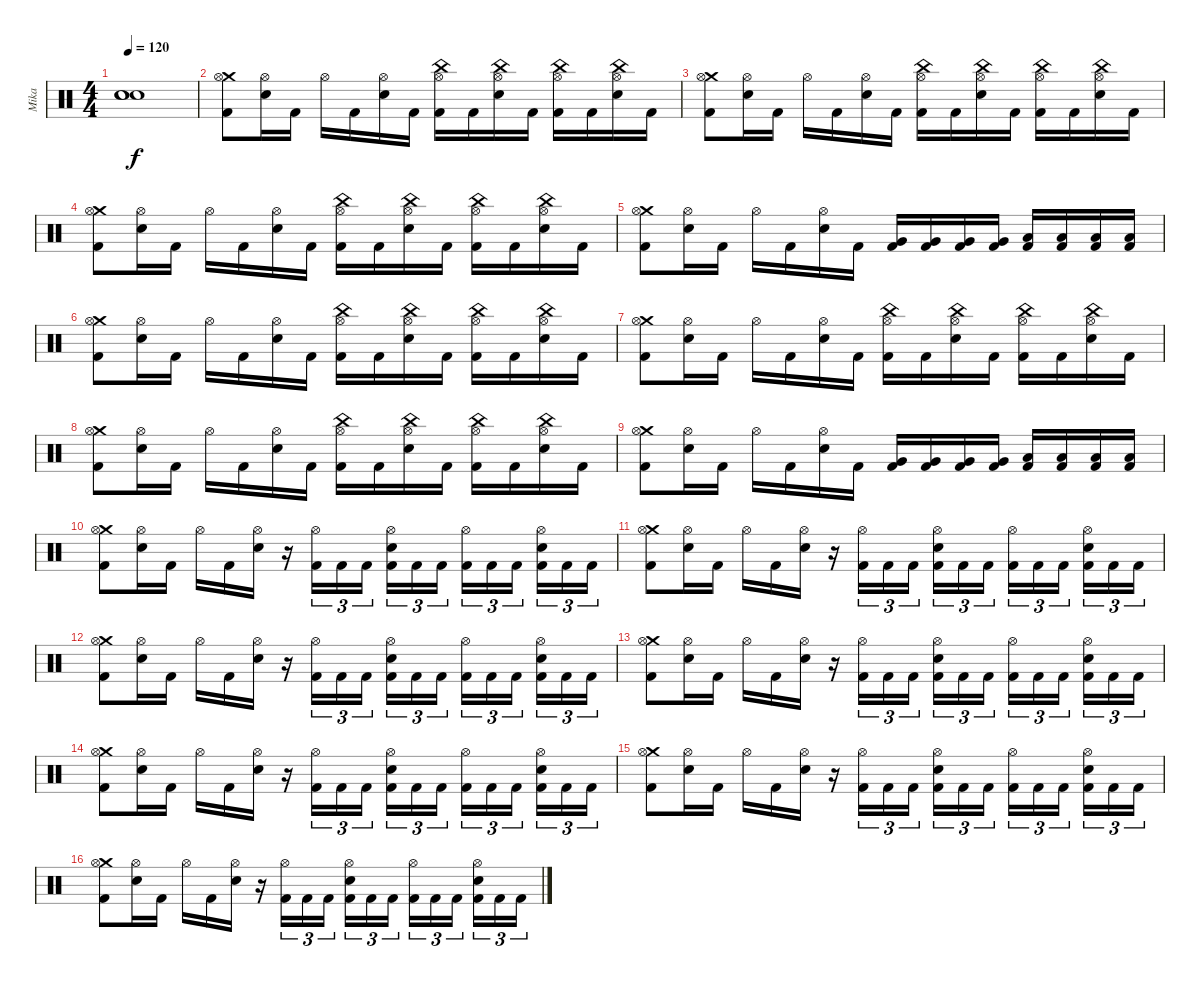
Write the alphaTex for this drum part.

\track ("Mika" "Mika") {instrument percussion}
\staff {score}
\articulation defaults
\ts (4 4)
\tempo 120
\clef neutral
\ks c
("Snare (hit)"{t} "Snare (hit)"{t} "Snare (hit)"{t}).1{dy f} |
("Crash medium (hit)" "Hi-Hat (open)" "Kick (hit) 2").8 ("Hi-Hat (open)" "Electric Snare (hit)").16 "Kick (hit) 2".16 "Hi-Hat (open)".16 "Kick (hit) 2".16 ("Hi-Hat (open)" "Electric Snare (hit)").16 "Kick (hit) 2".16 ("China (hit)" "Hi-Hat (open)" "Kick (hit) 2").16 "Kick (hit) 2".16 ("China (hit)" "Hi-Hat (open)" "Electric Snare (hit)").16 "Kick (hit) 2".16 ("China (hit)" "Hi-Hat (open)" "Kick (hit) 2").16 "Kick (hit) 2".16 ("China (hit)" "Hi-Hat (open)" "Electric Snare (hit)").16 "Kick (hit) 2".16 |
("Crash medium (hit)" "Hi-Hat (open)" "Kick (hit) 2").8 ("Hi-Hat (open)" "Electric Snare (hit)").16 "Kick (hit) 2".16 "Hi-Hat (open)".16 "Kick (hit) 2".16 ("Hi-Hat (open)" "Electric Snare (hit)").16 "Kick (hit) 2".16 ("China (hit)" "Hi-Hat (open)" "Kick (hit) 2").16 "Kick (hit) 2".16 ("China (hit)" "Hi-Hat (open)" "Electric Snare (hit)").16 "Kick (hit) 2".16 ("China (hit)" "Hi-Hat (open)" "Kick (hit) 2").16 "Kick (hit) 2".16 ("China (hit)" "Hi-Hat (open)" "Electric Snare (hit)").16 "Kick (hit) 2".16 |
("Crash medium (hit)" "Hi-Hat (open)" "Kick (hit) 2").8 ("Hi-Hat (open)" "Electric Snare (hit)").16 "Kick (hit) 2".16 "Hi-Hat (open)".16 "Kick (hit) 2".16 ("Hi-Hat (open)" "Electric Snare (hit)").16 "Kick (hit) 2".16 ("China (hit)" "Hi-Hat (open)" "Kick (hit) 2").16 "Kick (hit) 2".16 ("China (hit)" "Hi-Hat (open)" "Electric Snare (hit)").16 "Kick (hit) 2".16 ("China (hit)" "Hi-Hat (open)" "Kick (hit) 2").16 "Kick (hit) 2".16 ("China (hit)" "Hi-Hat (open)" "Electric Snare (hit)").16 "Kick (hit) 2".16 |
("Crash medium (hit)" "Hi-Hat (open)" "Kick (hit) 2").8 ("Hi-Hat (open)" "Electric Snare (hit)").16 "Kick (hit) 2".16 "Hi-Hat (open)".16 "Kick (hit) 2".16 ("Hi-Hat (open)" "Electric Snare (hit)").16 "Kick (hit) 2".16 ("Very Low Tom (hit)" "Kick (hit) 2").16 ("Very Low Tom (hit)" "Kick (hit) 2").16 ("Very Low Tom (hit)" "Kick (hit) 2").16 ("Very Low Tom (hit)" "Kick (hit) 2").16 ("Low Floor Tom (hit)" "Kick (hit) 2").16 ("Low Floor Tom (hit)" "Kick (hit) 2").16 ("Low Floor Tom (hit)" "Kick (hit) 2").16 ("Low Floor Tom (hit)" "Kick (hit) 2").16 |
("Crash medium (hit)" "Hi-Hat (open)" "Kick (hit) 2").8 ("Hi-Hat (open)" "Electric Snare (hit)").16 "Kick (hit) 2".16 "Hi-Hat (open)".16 "Kick (hit) 2".16 ("Hi-Hat (open)" "Electric Snare (hit)").16 "Kick (hit) 2".16 ("China (hit)" "Hi-Hat (open)" "Kick (hit) 2").16 "Kick (hit) 2".16 ("China (hit)" "Hi-Hat (open)" "Electric Snare (hit)").16 "Kick (hit) 2".16 ("China (hit)" "Hi-Hat (open)" "Kick (hit) 2").16 "Kick (hit) 2".16 ("China (hit)" "Hi-Hat (open)" "Electric Snare (hit)").16 "Kick (hit) 2".16 |
("Crash medium (hit)" "Hi-Hat (open)" "Kick (hit) 2").8 ("Hi-Hat (open)" "Electric Snare (hit)").16 "Kick (hit) 2".16 "Hi-Hat (open)".16 "Kick (hit) 2".16 ("Hi-Hat (open)" "Electric Snare (hit)").16 "Kick (hit) 2".16 ("China (hit)" "Hi-Hat (open)" "Kick (hit) 2").16 "Kick (hit) 2".16 ("China (hit)" "Hi-Hat (open)" "Electric Snare (hit)").16 "Kick (hit) 2".16 ("China (hit)" "Hi-Hat (open)" "Kick (hit) 2").16 "Kick (hit) 2".16 ("China (hit)" "Hi-Hat (open)" "Electric Snare (hit)").16 "Kick (hit) 2".16 |
("Crash medium (hit)" "Hi-Hat (open)" "Kick (hit) 2").8 ("Hi-Hat (open)" "Electric Snare (hit)").16 "Kick (hit) 2".16 "Hi-Hat (open)".16 "Kick (hit) 2".16 ("Hi-Hat (open)" "Electric Snare (hit)").16 "Kick (hit) 2".16 ("China (hit)" "Hi-Hat (open)" "Kick (hit) 2").16 "Kick (hit) 2".16 ("China (hit)" "Hi-Hat (open)" "Electric Snare (hit)").16 "Kick (hit) 2".16 ("China (hit)" "Hi-Hat (open)" "Kick (hit) 2").16 "Kick (hit) 2".16 ("China (hit)" "Hi-Hat (open)" "Electric Snare (hit)").16 "Kick (hit) 2".16 |
("Crash medium (hit)" "Hi-Hat (open)" "Kick (hit) 2").8 ("Hi-Hat (open)" "Electric Snare (hit)").16 "Kick (hit) 2".16 "Hi-Hat (open)".16 "Kick (hit) 2".16 ("Hi-Hat (open)" "Electric Snare (hit)").16 "Kick (hit) 2".16 ("Very Low Tom (hit)" "Kick (hit) 2").16 ("Very Low Tom (hit)" "Kick (hit) 2").16 ("Very Low Tom (hit)" "Kick (hit) 2").16 ("Very Low Tom (hit)" "Kick (hit) 2").16 ("Low Floor Tom (hit)" "Kick (hit) 2").16 ("Low Floor Tom (hit)" "Kick (hit) 2").16 ("Low Floor Tom (hit)" "Kick (hit) 2").16 ("Low Floor Tom (hit)" "Kick (hit) 2").16 |
("Crash medium (hit)" "Hi-Hat (open)" "Kick (hit) 2").8 ("Hi-Hat (open)" "Electric Snare (hit)").16 "Kick (hit) 2".16 "Hi-Hat (open)".16 "Kick (hit) 2".16 ("Hi-Hat (open)" "Electric Snare (hit)").16 r.16 ("Hi-Hat (open)" "Kick (hit) 2").16{tu (3 2)} "Kick (hit) 2".16{tu (3 2)} "Kick (hit) 2".16{tu (3 2) beam splitsecondary} ("Hi-Hat (open)" "Electric Snare (hit)" "Kick (hit) 2").16{tu (3 2)} "Kick (hit) 2".16{tu (3 2)} "Kick (hit) 2".16{tu (3 2)} ("Hi-Hat (open)" "Kick (hit) 2").16{tu (3 2)} "Kick (hit) 2".16{tu (3 2)} "Kick (hit) 2".16{tu (3 2) beam splitsecondary} ("Hi-Hat (open)" "Electric Snare (hit)" "Kick (hit) 2").16{tu (3 2)} "Kick (hit) 2".16{tu (3 2)} "Kick (hit) 2".16{tu (3 2)} |
("Crash medium (hit)" "Hi-Hat (open)" "Kick (hit) 2").8 ("Hi-Hat (open)" "Electric Snare (hit)").16 "Kick (hit) 2".16 "Hi-Hat (open)".16 "Kick (hit) 2".16 ("Hi-Hat (open)" "Electric Snare (hit)").16 r.16 ("Hi-Hat (open)" "Kick (hit) 2").16{tu (3 2)} "Kick (hit) 2".16{tu (3 2)} "Kick (hit) 2".16{tu (3 2) beam splitsecondary} ("Hi-Hat (open)" "Electric Snare (hit)" "Kick (hit) 2").16{tu (3 2)} "Kick (hit) 2".16{tu (3 2)} "Kick (hit) 2".16{tu (3 2)} ("Hi-Hat (open)" "Kick (hit) 2").16{tu (3 2)} "Kick (hit) 2".16{tu (3 2)} "Kick (hit) 2".16{tu (3 2) beam splitsecondary} ("Hi-Hat (open)" "Electric Snare (hit)" "Kick (hit) 2").16{tu (3 2)} "Kick (hit) 2".16{tu (3 2)} "Kick (hit) 2".16{tu (3 2)} |
("Crash medium (hit)" "Hi-Hat (open)" "Kick (hit) 2").8 ("Hi-Hat (open)" "Electric Snare (hit)").16 "Kick (hit) 2".16 "Hi-Hat (open)".16 "Kick (hit) 2".16 ("Hi-Hat (open)" "Electric Snare (hit)").16 r.16 ("Hi-Hat (open)" "Kick (hit) 2").16{tu (3 2)} "Kick (hit) 2".16{tu (3 2)} "Kick (hit) 2".16{tu (3 2) beam splitsecondary} ("Hi-Hat (open)" "Electric Snare (hit)" "Kick (hit) 2").16{tu (3 2)} "Kick (hit) 2".16{tu (3 2)} "Kick (hit) 2".16{tu (3 2)} ("Hi-Hat (open)" "Kick (hit) 2").16{tu (3 2)} "Kick (hit) 2".16{tu (3 2)} "Kick (hit) 2".16{tu (3 2) beam splitsecondary} ("Hi-Hat (open)" "Electric Snare (hit)" "Kick (hit) 2").16{tu (3 2)} "Kick (hit) 2".16{tu (3 2)} "Kick (hit) 2".16{tu (3 2)} |
("Crash medium (hit)" "Hi-Hat (open)" "Kick (hit) 2").8 ("Hi-Hat (open)" "Electric Snare (hit)").16 "Kick (hit) 2".16 "Hi-Hat (open)".16 "Kick (hit) 2".16 ("Hi-Hat (open)" "Electric Snare (hit)").16 r.16 ("Hi-Hat (open)" "Kick (hit) 2").16{tu (3 2)} "Kick (hit) 2".16{tu (3 2)} "Kick (hit) 2".16{tu (3 2) beam splitsecondary} ("Hi-Hat (open)" "Electric Snare (hit)" "Kick (hit) 2").16{tu (3 2)} "Kick (hit) 2".16{tu (3 2)} "Kick (hit) 2".16{tu (3 2)} ("Hi-Hat (open)" "Kick (hit) 2").16{tu (3 2)} "Kick (hit) 2".16{tu (3 2)} "Kick (hit) 2".16{tu (3 2) beam splitsecondary} ("Hi-Hat (open)" "Electric Snare (hit)" "Kick (hit) 2").16{tu (3 2)} "Kick (hit) 2".16{tu (3 2)} "Kick (hit) 2".16{tu (3 2)} |
("Crash medium (hit)" "Hi-Hat (open)" "Kick (hit) 2").8 ("Hi-Hat (open)" "Electric Snare (hit)").16 "Kick (hit) 2".16 "Hi-Hat (open)".16 "Kick (hit) 2".16 ("Hi-Hat (open)" "Electric Snare (hit)").16 r.16 ("Hi-Hat (open)" "Kick (hit) 2").16{tu (3 2)} "Kick (hit) 2".16{tu (3 2)} "Kick (hit) 2".16{tu (3 2) beam splitsecondary} ("Hi-Hat (open)" "Electric Snare (hit)" "Kick (hit) 2").16{tu (3 2)} "Kick (hit) 2".16{tu (3 2)} "Kick (hit) 2".16{tu (3 2)} ("Hi-Hat (open)" "Kick (hit) 2").16{tu (3 2)} "Kick (hit) 2".16{tu (3 2)} "Kick (hit) 2".16{tu (3 2) beam splitsecondary} ("Hi-Hat (open)" "Electric Snare (hit)" "Kick (hit) 2").16{tu (3 2)} "Kick (hit) 2".16{tu (3 2)} "Kick (hit) 2".16{tu (3 2)} |
("Crash medium (hit)" "Hi-Hat (open)" "Kick (hit) 2").8 ("Hi-Hat (open)" "Electric Snare (hit)").16 "Kick (hit) 2".16 "Hi-Hat (open)".16 "Kick (hit) 2".16 ("Hi-Hat (open)" "Electric Snare (hit)").16 r.16 ("Hi-Hat (open)" "Kick (hit) 2").16{tu (3 2)} "Kick (hit) 2".16{tu (3 2)} "Kick (hit) 2".16{tu (3 2) beam splitsecondary} ("Hi-Hat (open)" "Electric Snare (hit)" "Kick (hit) 2").16{tu (3 2)} "Kick (hit) 2".16{tu (3 2)} "Kick (hit) 2".16{tu (3 2)} ("Hi-Hat (open)" "Kick (hit) 2").16{tu (3 2)} "Kick (hit) 2".16{tu (3 2)} "Kick (hit) 2".16{tu (3 2) beam splitsecondary} ("Hi-Hat (open)" "Electric Snare (hit)" "Kick (hit) 2").16{tu (3 2)} "Kick (hit) 2".16{tu (3 2)} "Kick (hit) 2".16{tu (3 2)} |
("Crash medium (hit)" "Hi-Hat (open)" "Kick (hit) 2").8 ("Hi-Hat (open)" "Electric Snare (hit)").16 "Kick (hit) 2".16 "Hi-Hat (open)".16 "Kick (hit) 2".16 ("Hi-Hat (open)" "Electric Snare (hit)").16 r.16 ("Hi-Hat (open)" "Kick (hit) 2").16{tu (3 2)} "Kick (hit) 2".16{tu (3 2)} "Kick (hit) 2".16{tu (3 2) beam splitsecondary} ("Hi-Hat (open)" "Electric Snare (hit)" "Kick (hit) 2").16{tu (3 2)} "Kick (hit) 2".16{tu (3 2)} "Kick (hit) 2".16{tu (3 2)} ("Hi-Hat (open)" "Kick (hit) 2").16{tu (3 2)} "Kick (hit) 2".16{tu (3 2)} "Kick (hit) 2".16{tu (3 2) beam splitsecondary} ("Hi-Hat (open)" "Electric Snare (hit)" "Kick (hit) 2").16{tu (3 2)} "Kick (hit) 2".16{tu (3 2)} "Kick (hit) 2".16{tu (3 2)}
